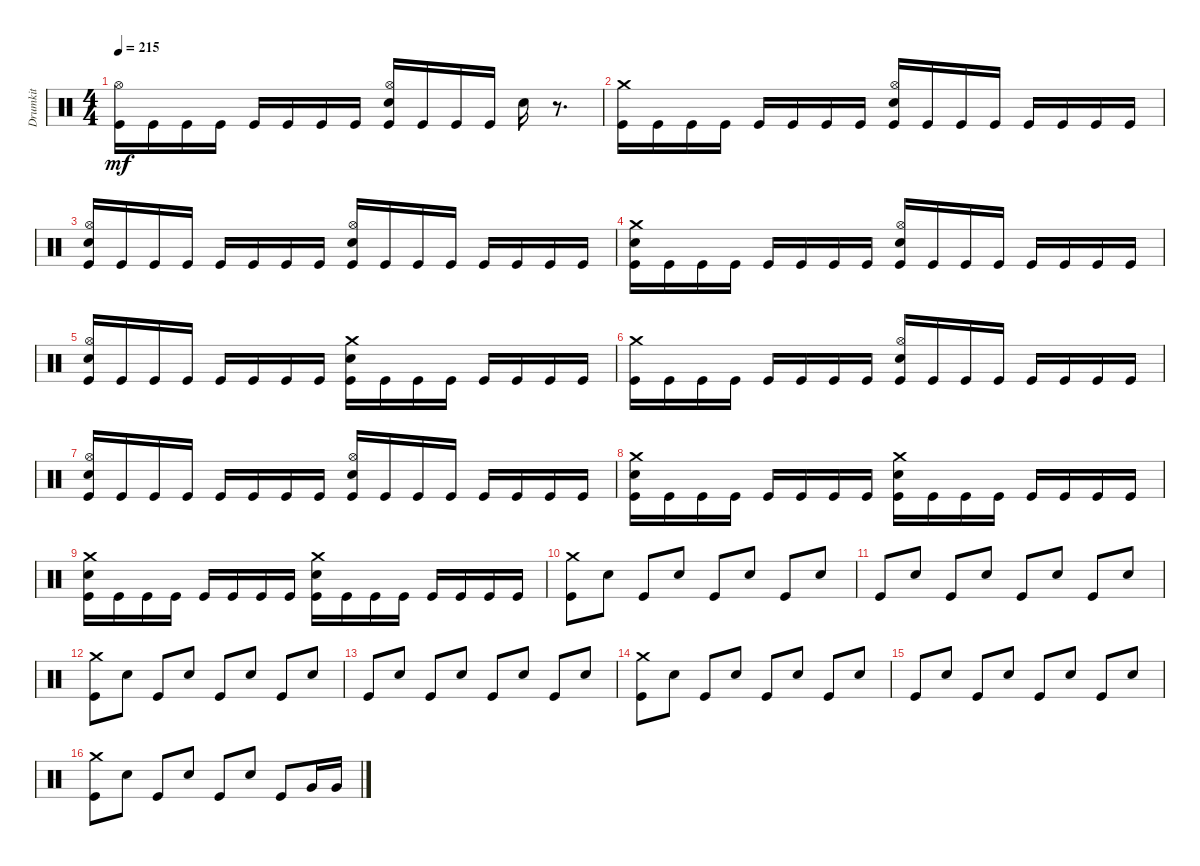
\track ("Drumkit" "Drumkit") {instrument percussion}
\staff {score}
\articulation defaults
\ts (4 4)
\tempo 215
\clef neutral
\ks c
("Kick (hit)" "Hi-Hat (open)").16{dy mf} "Kick (hit)".16 "Kick (hit)".16 "Kick (hit)".16 "Kick (hit)".16 "Kick (hit)".16 "Kick (hit)".16 "Kick (hit)".16 ("Kick (hit)" "Snare (hit) 2" "Hi-Hat (open)").16 "Kick (hit)".16 "Kick (hit)".16 "Kick (hit)".16 "Snare (hit) 2".16 r.8{d} |
("Kick (hit)" "Crash medium (hit)").16 "Kick (hit)".16 "Kick (hit)".16 "Kick (hit)".16 "Kick (hit)".16 "Kick (hit)".16 "Kick (hit)".16 "Kick (hit)".16 ("Kick (hit)" "Snare (hit) 2" "Hi-Hat (open)").16 "Kick (hit)".16 "Kick (hit)".16 "Kick (hit)".16 "Kick (hit)".16 "Kick (hit)".16 "Kick (hit)".16 "Kick (hit)".16 |
("Kick (hit)" "Snare (hit) 2" "Hi-Hat (open)").16 "Kick (hit)".16 "Kick (hit)".16 "Kick (hit)".16 "Kick (hit)".16 "Kick (hit)".16 "Kick (hit)".16 "Kick (hit)".16 ("Kick (hit)" "Snare (hit) 2" "Hi-Hat (open)").16 "Kick (hit)".16 "Kick (hit)".16 "Kick (hit)".16 "Kick (hit)".16 "Kick (hit)".16 "Kick (hit)".16 "Kick (hit)".16 |
("Kick (hit)" "Snare (hit) 2" "Crash medium (hit)").16 "Kick (hit)".16 "Kick (hit)".16 "Kick (hit)".16 "Kick (hit)".16 "Kick (hit)".16 "Kick (hit)".16 "Kick (hit)".16 ("Kick (hit)" "Snare (hit) 2" "Hi-Hat (open)").16 "Kick (hit)".16 "Kick (hit)".16 "Kick (hit)".16 "Kick (hit)".16 "Kick (hit)".16 "Kick (hit)".16 "Kick (hit)".16 |
("Kick (hit)" "Snare (hit) 2" "Hi-Hat (open)").16 "Kick (hit)".16 "Kick (hit)".16 "Kick (hit)".16 "Kick (hit)".16 "Kick (hit)".16 "Kick (hit)".16 "Kick (hit)".16 ("Kick (hit)" "Snare (hit) 2" "Crash medium (hit)").16 "Kick (hit)".16 "Kick (hit)".16 "Kick (hit)".16 "Kick (hit)".16 "Kick (hit)".16 "Kick (hit)".16 "Kick (hit)".16 |
("Kick (hit)" "Crash medium (hit)").16 "Kick (hit)".16 "Kick (hit)".16 "Kick (hit)".16 "Kick (hit)".16 "Kick (hit)".16 "Kick (hit)".16 "Kick (hit)".16 ("Kick (hit)" "Snare (hit) 2" "Hi-Hat (open)").16 "Kick (hit)".16 "Kick (hit)".16 "Kick (hit)".16 "Kick (hit)".16 "Kick (hit)".16 "Kick (hit)".16 "Kick (hit)".16 |
("Kick (hit)" "Snare (hit) 2" "Hi-Hat (open)").16 "Kick (hit)".16 "Kick (hit)".16 "Kick (hit)".16 "Kick (hit)".16 "Kick (hit)".16 "Kick (hit)".16 "Kick (hit)".16 ("Kick (hit)" "Snare (hit) 2" "Hi-Hat (open)").16 "Kick (hit)".16 "Kick (hit)".16 "Kick (hit)".16 "Kick (hit)".16 "Kick (hit)".16 "Kick (hit)".16 "Kick (hit)".16 |
("Kick (hit)" "Snare (hit) 2" "Crash medium (hit)").16 "Kick (hit)".16 "Kick (hit)".16 "Kick (hit)".16 "Kick (hit)".16 "Kick (hit)".16 "Kick (hit)".16 "Kick (hit)".16 ("Kick (hit)" "Snare (hit) 2" "Crash medium (hit)").16 "Kick (hit)".16 "Kick (hit)".16 "Kick (hit)".16 "Kick (hit)".16 "Kick (hit)".16 "Kick (hit)".16 "Kick (hit)".16 |
("Kick (hit)" "Snare (hit) 2" "Crash medium (hit)").16 "Kick (hit)".16 "Kick (hit)".16 "Kick (hit)".16 "Kick (hit)".16 "Kick (hit)".16 "Kick (hit)".16 "Kick (hit)".16 ("Kick (hit)" "Snare (hit) 2" "Crash medium (hit)").16 "Kick (hit)".16 "Kick (hit)".16 "Kick (hit)".16 "Kick (hit)".16 "Kick (hit)".16 "Kick (hit)".16 "Kick (hit)".16 |
("Kick (hit)" "Crash medium (hit)").8 "Snare (hit) 2".8 "Kick (hit)".8 "Snare (hit) 2".8 "Kick (hit)".8 "Snare (hit) 2".8 "Kick (hit)".8 "Snare (hit) 2".8 |
"Kick (hit)".8 "Snare (hit) 2".8 "Kick (hit)".8 "Snare (hit) 2".8 "Kick (hit)".8 "Snare (hit) 2".8 "Kick (hit)".8 "Snare (hit) 2".8 |
("Kick (hit)" "Crash medium (hit)").8 "Snare (hit) 2".8 "Kick (hit)".8 "Snare (hit) 2".8 "Kick (hit)".8 "Snare (hit) 2".8 "Kick (hit)".8 "Snare (hit) 2".8 |
"Kick (hit)".8 "Snare (hit) 2".8 "Kick (hit)".8 "Snare (hit) 2".8 "Kick (hit)".8 "Snare (hit) 2".8 "Kick (hit)".8 "Snare (hit) 2".8 |
("Kick (hit)" "Crash medium (hit)").8 "Snare (hit) 2".8 "Kick (hit)".8 "Snare (hit) 2".8 "Kick (hit)".8 "Snare (hit) 2".8 "Kick (hit)".8 "Snare (hit) 2".8 |
"Kick (hit)".8 "Snare (hit) 2".8 "Kick (hit)".8 "Snare (hit) 2".8 "Kick (hit)".8 "Snare (hit) 2".8 "Kick (hit)".8 "Snare (hit) 2".8 |
("Kick (hit)" "Crash medium (hit)").8 "Snare (hit) 2".8 "Kick (hit)".8 "Snare (hit) 2".8 "Kick (hit)".8 "Snare (hit) 2".8 "Kick (hit)".8 "Very Low Tom (hit)".16 "Very Low Tom (hit)".16
